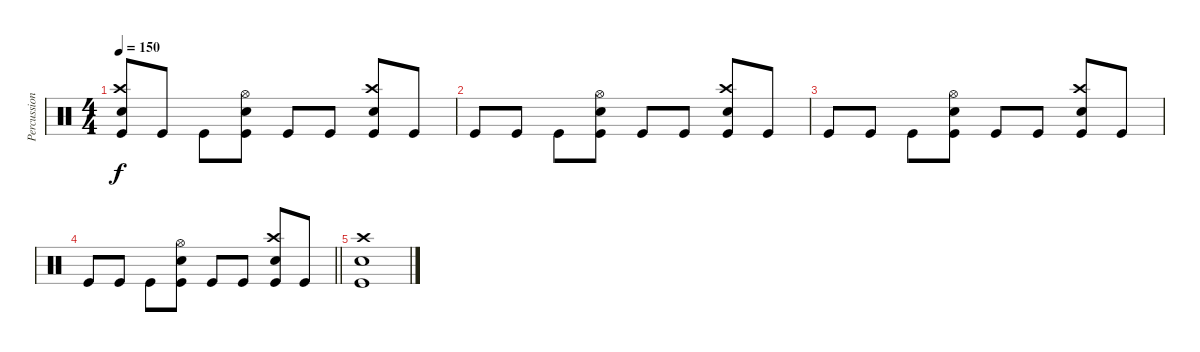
\track ("Percussion" "Percussion") {instrument percussion}
\staff {score}
\articulation defaults
\ts (4 4)
\tempo 150
\clef neutral
\ks c
("Kick (hit)" "Crash high (hit)" "Snare (hit) 2").8{dy f} "Kick (hit)".8 "Kick (hit)".8 ("Kick (hit)" "Snare (hit) 2" "Hi-Hat (open)").8 "Kick (hit)".8 "Kick (hit)".8 ("Snare (hit) 2" "Kick (hit)" "Crash high (hit)").8 "Kick (hit)".8 |
"Kick (hit)".8 "Kick (hit)".8 "Kick (hit)".8 ("Kick (hit)" "Snare (hit) 2" "Hi-Hat (open)").8 "Kick (hit)".8 "Kick (hit)".8 ("Kick (hit)" "Snare (hit) 2" "Crash high (hit)").8 "Kick (hit)".8 |
"Kick (hit)".8 "Kick (hit)".8 "Kick (hit)".8 ("Kick (hit)" "Snare (hit) 2" "Hi-Hat (open)").8 "Kick (hit)".8 "Kick (hit)".8 ("Kick (hit)" "Snare (hit) 2" "Crash high (hit)").8 "Kick (hit)".8 |
\barLineRight lightlight "Kick (hit)".8 "Kick (hit)".8 "Kick (hit)".8
("Kick (hit)" "Snare (hit) 2" "Hi-Hat (open)").8 "Kick (hit)".8 "Kick (hit)".8 ("Kick (hit)" "Snare (hit) 2" "Crash high (hit)").8 "Kick (hit)".8 |
("Kick (hit)" "Snare (hit) 2" "Crash high (hit)").1
